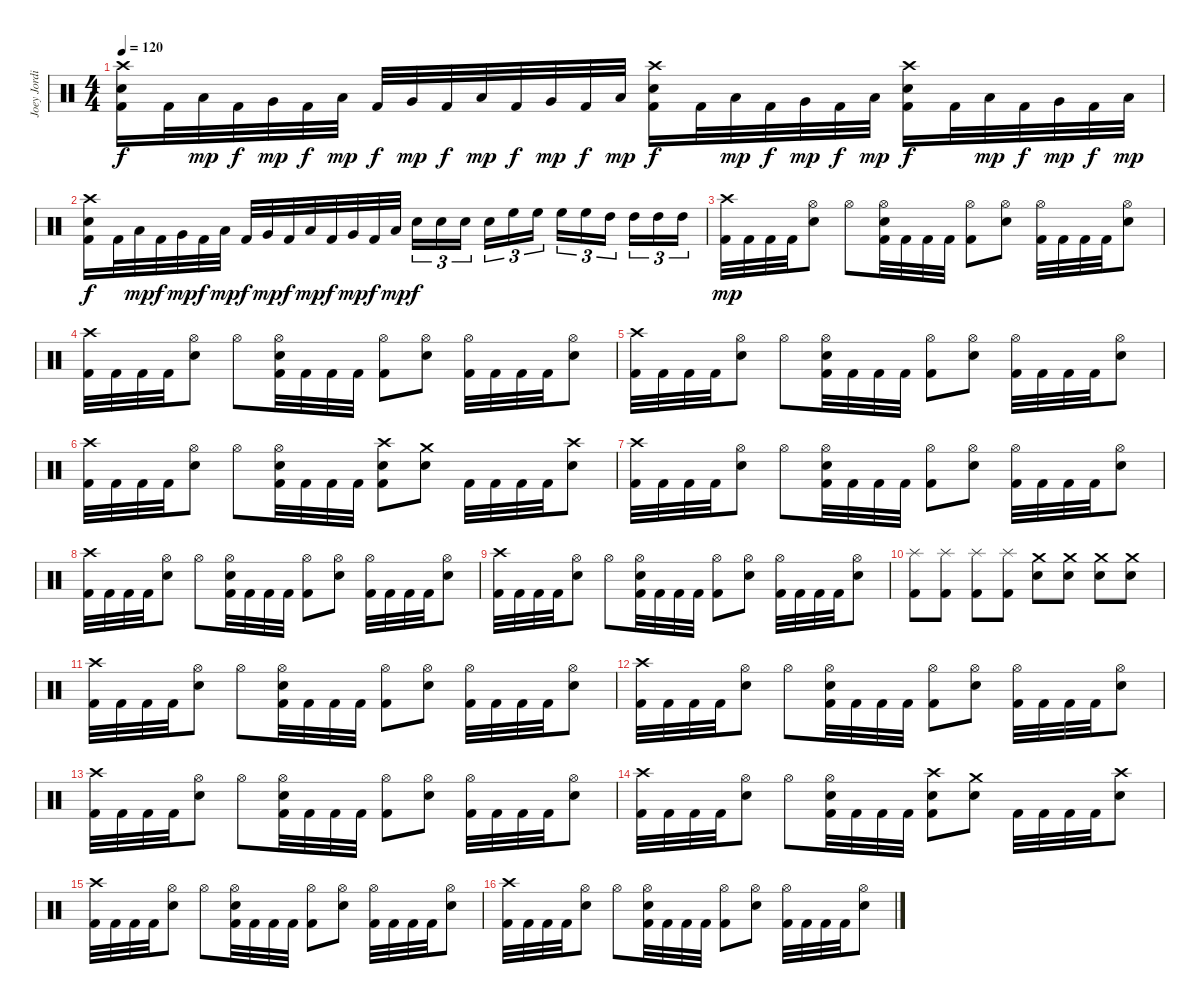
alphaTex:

\track ("Joey Jordison" "Joey Jordi") {instrument percussion}
\staff {score}
\articulation defaults
\ts (4 4)
\tempo 120
\clef neutral
\ks c
("Crash high (hit)" "Electric Snare (hit)" "Kick (hit) 2").16{dy f} "Kick (hit) 2".32 "Low Tom (hit)".32{dy mp} "Kick (hit) 2".32{dy f} "Very Low Tom (hit)".32{dy mp} "Kick (hit) 2".32{dy f} "Low Tom (hit)".32{dy mp} "Kick (hit) 2".32{dy f} "Very Low Tom (hit)".32{dy mp} "Kick (hit) 2".32{dy f} "Low Tom (hit)".32{dy mp} "Kick (hit) 2".32{dy f} "Very Low Tom (hit)".32{dy mp} "Kick (hit) 2".32{dy f} "Low Tom (hit)".32{dy mp} ("Crash high (hit)" "Electric Snare (hit)" "Kick (hit) 2").16{dy f} "Kick (hit) 2".32 "Low Tom (hit)".32{dy mp} "Kick (hit) 2".32{dy f} "Very Low Tom (hit)".32{dy mp} "Kick (hit) 2".32{dy f} "Low Tom (hit)".32{dy mp} ("Crash high (hit)" "Electric Snare (hit)" "Kick (hit) 2").16{dy f} "Kick (hit) 2".32 "Low Tom (hit)".32{dy mp} "Kick (hit) 2".32{dy f} "Very Low Tom (hit)".32{dy mp} "Kick (hit) 2".32{dy f} "Low Tom (hit)".32{dy mp} |
("Crash high (hit)" "Electric Snare (hit)" "Kick (hit) 2").16{dy f} "Kick (hit) 2".32 "Low Tom (hit)".32{dy mp} "Kick (hit) 2".32{dy f} "Very Low Tom (hit)".32{dy mp} "Kick (hit) 2".32{dy f} "Low Tom (hit)".32{dy mp} "Kick (hit) 2".32{dy f} "Very Low Tom (hit)".32{dy mp} "Kick (hit) 2".32{dy f} "Low Tom (hit)".32{dy mp} "Kick (hit) 2".32{dy f} "Very Low Tom (hit)".32{dy mp} "Kick (hit) 2".32{dy f} "Low Tom (hit)".32{dy mp} "Electric Snare (hit)".16{tu (3 2) dy f} "Electric Snare (hit)".16{tu (3 2)} "Electric Snare (hit)".16{tu (3 2) beam splitsecondary} "Electric Snare (hit)".16{tu (3 2)} "High Floor Tom (hit)".16{tu (3 2)} "High Floor Tom (hit)".16{tu (3 2)} "High Floor Tom (hit)".16{tu (3 2)} "High Floor Tom (hit)".16{tu (3 2)} "High Tom (hit)".16{tu (3 2) beam splitsecondary} "High Tom (hit)".16{tu (3 2)} "High Tom (hit)".16{tu (3 2)} "High Tom (hit)".16{tu (3 2)} |
("Crash high (hit)" "Kick (hit) 2").32{dy mp} "Kick (hit) 2".32 "Kick (hit) 2".32 "Kick (hit) 2".32 ("Hi-Hat (open)" "Electric Snare (hit)").8 "Hi-Hat (open)".8 ("Hi-Hat (open)" "Electric Snare (hit)" "Kick (hit) 2").32 "Kick (hit) 2".32 "Kick (hit) 2".32 "Kick (hit) 2".32 ("Hi-Hat (open)" "Kick (hit) 2").8 ("Hi-Hat (open)" "Electric Snare (hit)").8 ("Hi-Hat (open)" "Kick (hit) 2").32 "Kick (hit) 2".32 "Kick (hit) 2".32 "Kick (hit) 2".32 ("Hi-Hat (open)" "Electric Snare (hit)").8 |
("Crash high (hit)" "Kick (hit) 2").32 "Kick (hit) 2".32 "Kick (hit) 2".32 "Kick (hit) 2".32 ("Hi-Hat (open)" "Electric Snare (hit)").8 "Hi-Hat (open)".8 ("Hi-Hat (open)" "Electric Snare (hit)" "Kick (hit) 2").32 "Kick (hit) 2".32 "Kick (hit) 2".32 "Kick (hit) 2".32 ("Hi-Hat (open)" "Kick (hit) 2").8 ("Hi-Hat (open)" "Electric Snare (hit)").8 ("Hi-Hat (open)" "Kick (hit) 2").32 "Kick (hit) 2".32 "Kick (hit) 2".32 "Kick (hit) 2".32 ("Hi-Hat (open)" "Electric Snare (hit)").8 |
("Crash high (hit)" "Kick (hit) 2").32 "Kick (hit) 2".32 "Kick (hit) 2".32 "Kick (hit) 2".32 ("Hi-Hat (open)" "Electric Snare (hit)").8 "Hi-Hat (open)".8 ("Hi-Hat (open)" "Electric Snare (hit)" "Kick (hit) 2").32 "Kick (hit) 2".32 "Kick (hit) 2".32 "Kick (hit) 2".32 ("Hi-Hat (open)" "Kick (hit) 2").8 ("Hi-Hat (open)" "Electric Snare (hit)").8 ("Hi-Hat (open)" "Kick (hit) 2").32 "Kick (hit) 2".32 "Kick (hit) 2".32 "Kick (hit) 2".32 ("Hi-Hat (open)" "Electric Snare (hit)").8 |
("Crash high (hit)" "Kick (hit) 2").32 "Kick (hit) 2".32 "Kick (hit) 2".32 "Kick (hit) 2".32 ("Hi-Hat (open)" "Electric Snare (hit)").8 "Hi-Hat (open)".8 ("Hi-Hat (open)" "Electric Snare (hit)" "Kick (hit) 2").32 "Kick (hit) 2".32 "Kick (hit) 2".32 "Kick (hit) 2".32 ("Crash high (hit)" "Electric Snare (hit)" "Kick (hit) 2").8 ("Crash medium (hit)" "Electric Snare (hit)").8 "Kick (hit) 2".32 "Kick (hit) 2".32 "Kick (hit) 2".32 "Kick (hit) 2".32 ("Crash high (hit)" "Electric Snare (hit)").8 |
("Crash high (hit)" "Kick (hit) 2").32 "Kick (hit) 2".32 "Kick (hit) 2".32 "Kick (hit) 2".32 ("Hi-Hat (open)" "Electric Snare (hit)").8 "Hi-Hat (open)".8 ("Hi-Hat (open)" "Electric Snare (hit)" "Kick (hit) 2").32 "Kick (hit) 2".32 "Kick (hit) 2".32 "Kick (hit) 2".32 ("Hi-Hat (open)" "Kick (hit) 2").8 ("Hi-Hat (open)" "Electric Snare (hit)").8 ("Hi-Hat (open)" "Kick (hit) 2").32 "Kick (hit) 2".32 "Kick (hit) 2".32 "Kick (hit) 2".32 ("Hi-Hat (open)" "Electric Snare (hit)").8 |
("Crash high (hit)" "Kick (hit) 2").32 "Kick (hit) 2".32 "Kick (hit) 2".32 "Kick (hit) 2".32 ("Hi-Hat (open)" "Electric Snare (hit)").8 "Hi-Hat (open)".8 ("Hi-Hat (open)" "Electric Snare (hit)" "Kick (hit) 2").32 "Kick (hit) 2".32 "Kick (hit) 2".32 "Kick (hit) 2".32 ("Hi-Hat (open)" "Kick (hit) 2").8 ("Hi-Hat (open)" "Electric Snare (hit)").8 ("Hi-Hat (open)" "Kick (hit) 2").32 "Kick (hit) 2".32 "Kick (hit) 2".32 "Kick (hit) 2".32 ("Hi-Hat (open)" "Electric Snare (hit)").8 |
("Crash high (hit)" "Kick (hit) 2").32 "Kick (hit) 2".32 "Kick (hit) 2".32 "Kick (hit) 2".32 ("Hi-Hat (open)" "Electric Snare (hit)").8 "Hi-Hat (open)".8 ("Hi-Hat (open)" "Electric Snare (hit)" "Kick (hit) 2").32 "Kick (hit) 2".32 "Kick (hit) 2".32 "Kick (hit) 2".32 ("Hi-Hat (open)" "Kick (hit) 2").8 ("Hi-Hat (open)" "Electric Snare (hit)").8 ("Hi-Hat (open)" "Kick (hit) 2").32 "Kick (hit) 2".32 "Kick (hit) 2".32 "Kick (hit) 2".32 ("Hi-Hat (open)" "Electric Snare (hit)").8 |
("Splash (hit)" "Kick (hit) 2").8 ("Splash (hit)" "Kick (hit) 2").8 ("Splash (hit)" "Kick (hit) 2").8 ("Splash (hit)" "Kick (hit) 2").8 ("Crash medium (hit)" "Electric Snare (hit)").8 ("Crash medium (hit)" "Electric Snare (hit)").8 ("Crash medium (hit)" "Electric Snare (hit)").8 ("Crash medium (hit)" "Electric Snare (hit)").8 |
("Crash high (hit)" "Kick (hit) 2").32 "Kick (hit) 2".32 "Kick (hit) 2".32 "Kick (hit) 2".32 ("Hi-Hat (open)" "Electric Snare (hit)").8 "Hi-Hat (open)".8 ("Hi-Hat (open)" "Electric Snare (hit)" "Kick (hit) 2").32 "Kick (hit) 2".32 "Kick (hit) 2".32 "Kick (hit) 2".32 ("Hi-Hat (open)" "Kick (hit) 2").8 ("Hi-Hat (open)" "Electric Snare (hit)").8 ("Hi-Hat (open)" "Kick (hit) 2").32 "Kick (hit) 2".32 "Kick (hit) 2".32 "Kick (hit) 2".32 ("Hi-Hat (open)" "Electric Snare (hit)").8 |
("Crash high (hit)" "Kick (hit) 2").32 "Kick (hit) 2".32 "Kick (hit) 2".32 "Kick (hit) 2".32 ("Hi-Hat (open)" "Electric Snare (hit)").8 "Hi-Hat (open)".8 ("Hi-Hat (open)" "Electric Snare (hit)" "Kick (hit) 2").32 "Kick (hit) 2".32 "Kick (hit) 2".32 "Kick (hit) 2".32 ("Hi-Hat (open)" "Kick (hit) 2").8 ("Hi-Hat (open)" "Electric Snare (hit)").8 ("Hi-Hat (open)" "Kick (hit) 2").32 "Kick (hit) 2".32 "Kick (hit) 2".32 "Kick (hit) 2".32 ("Hi-Hat (open)" "Electric Snare (hit)").8 |
("Crash high (hit)" "Kick (hit) 2").32 "Kick (hit) 2".32 "Kick (hit) 2".32 "Kick (hit) 2".32 ("Hi-Hat (open)" "Electric Snare (hit)").8 "Hi-Hat (open)".8 ("Hi-Hat (open)" "Electric Snare (hit)" "Kick (hit) 2").32 "Kick (hit) 2".32 "Kick (hit) 2".32 "Kick (hit) 2".32 ("Hi-Hat (open)" "Kick (hit) 2").8 ("Hi-Hat (open)" "Electric Snare (hit)").8 ("Hi-Hat (open)" "Kick (hit) 2").32 "Kick (hit) 2".32 "Kick (hit) 2".32 "Kick (hit) 2".32 ("Hi-Hat (open)" "Electric Snare (hit)").8 |
("Crash high (hit)" "Kick (hit) 2").32 "Kick (hit) 2".32 "Kick (hit) 2".32 "Kick (hit) 2".32 ("Hi-Hat (open)" "Electric Snare (hit)").8 "Hi-Hat (open)".8 ("Hi-Hat (open)" "Electric Snare (hit)" "Kick (hit) 2").32 "Kick (hit) 2".32 "Kick (hit) 2".32 "Kick (hit) 2".32 ("Crash high (hit)" "Electric Snare (hit)" "Kick (hit) 2").8 ("Crash medium (hit)" "Electric Snare (hit)").8 "Kick (hit) 2".32 "Kick (hit) 2".32 "Kick (hit) 2".32 "Kick (hit) 2".32 ("Crash high (hit)" "Electric Snare (hit)").8 |
("Crash high (hit)" "Kick (hit) 2").32 "Kick (hit) 2".32 "Kick (hit) 2".32 "Kick (hit) 2".32 ("Hi-Hat (open)" "Electric Snare (hit)").8 "Hi-Hat (open)".8 ("Hi-Hat (open)" "Electric Snare (hit)" "Kick (hit) 2").32 "Kick (hit) 2".32 "Kick (hit) 2".32 "Kick (hit) 2".32 ("Hi-Hat (open)" "Kick (hit) 2").8 ("Hi-Hat (open)" "Electric Snare (hit)").8 ("Hi-Hat (open)" "Kick (hit) 2").32 "Kick (hit) 2".32 "Kick (hit) 2".32 "Kick (hit) 2".32 ("Hi-Hat (open)" "Electric Snare (hit)").8 |
("Crash high (hit)" "Kick (hit) 2").32 "Kick (hit) 2".32 "Kick (hit) 2".32 "Kick (hit) 2".32 ("Hi-Hat (open)" "Electric Snare (hit)").8 "Hi-Hat (open)".8 ("Hi-Hat (open)" "Electric Snare (hit)" "Kick (hit) 2").32 "Kick (hit) 2".32 "Kick (hit) 2".32 "Kick (hit) 2".32 ("Hi-Hat (open)" "Kick (hit) 2").8 ("Hi-Hat (open)" "Electric Snare (hit)").8 ("Hi-Hat (open)" "Kick (hit) 2").32 "Kick (hit) 2".32 "Kick (hit) 2".32 "Kick (hit) 2".32 ("Hi-Hat (open)" "Electric Snare (hit)").8
